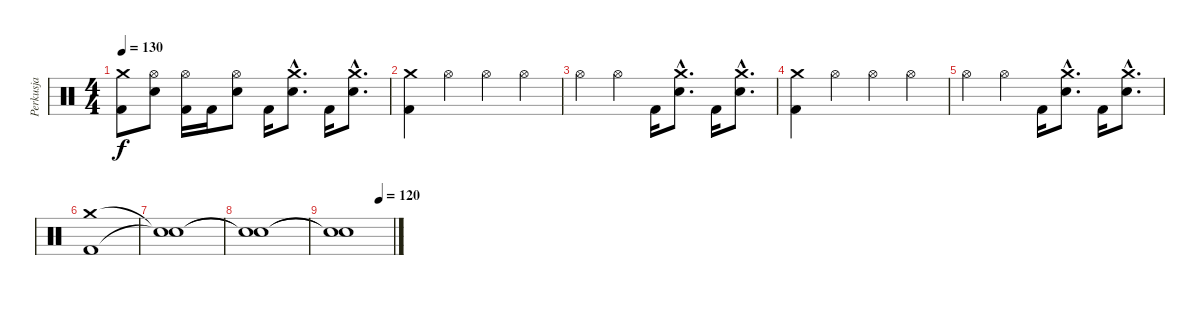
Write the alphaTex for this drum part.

\track ("Perkusja" "Perkusja") {instrument percussion}
\staff {score}
\articulation defaults
\ts (4 4)
\tempo 130
\clef neutral
\ks c
("Crash medium (hit)" "Kick (hit) 2").8{dy f} ("Hi-Hat (open)" "Electric Snare (hit)").8 ("Hi-Hat (open)" "Kick (hit) 2").16 "Kick (hit) 2".16 ("Hi-Hat (open)" "Electric Snare (hit)").8 "Kick (hit) 2".16 ("Crash medium (hit)"{hac} "Electric Snare (hit)"{hac}).8{d} "Kick (hit) 2".16 ("Crash medium (hit)"{hac} "Electric Snare (hit)"{hac}).8{d} |
("Crash medium (hit)" "Kick (hit) 2").4 "Hi-Hat (open)".4 "Hi-Hat (open)".4 "Hi-Hat (open)".4 |
"Hi-Hat (open)".4 "Hi-Hat (open)".4 "Kick (hit) 2".16 ("Crash medium (hit)"{hac} "Electric Snare (hit)"{hac}).8{d} "Kick (hit) 2".16 ("Crash medium (hit)"{hac} "Electric Snare (hit)"{hac}).8{d} |
("Crash medium (hit)" "Kick (hit) 2").4 "Hi-Hat (open)".4 "Hi-Hat (open)".4 "Hi-Hat (open)".4 |
"Hi-Hat (open)".4 "Hi-Hat (open)".4 "Kick (hit) 2".16 ("Crash medium (hit)"{hac} "Electric Snare (hit)"{hac}).8{d} "Kick (hit) 2".16 ("Crash medium (hit)"{hac} "Electric Snare (hit)"{hac}).8{d} |
("Crash medium (hit)" "Kick (hit) 2").1 |
("Snare (hit)"{t} "Snare (hit)"{t}).1 |
("Snare (hit)"{t} "Snare (hit)"{t}).1 |
\tempo (120 0.75)
("Snare (hit)"{t} "Snare (hit)"{t}).1
